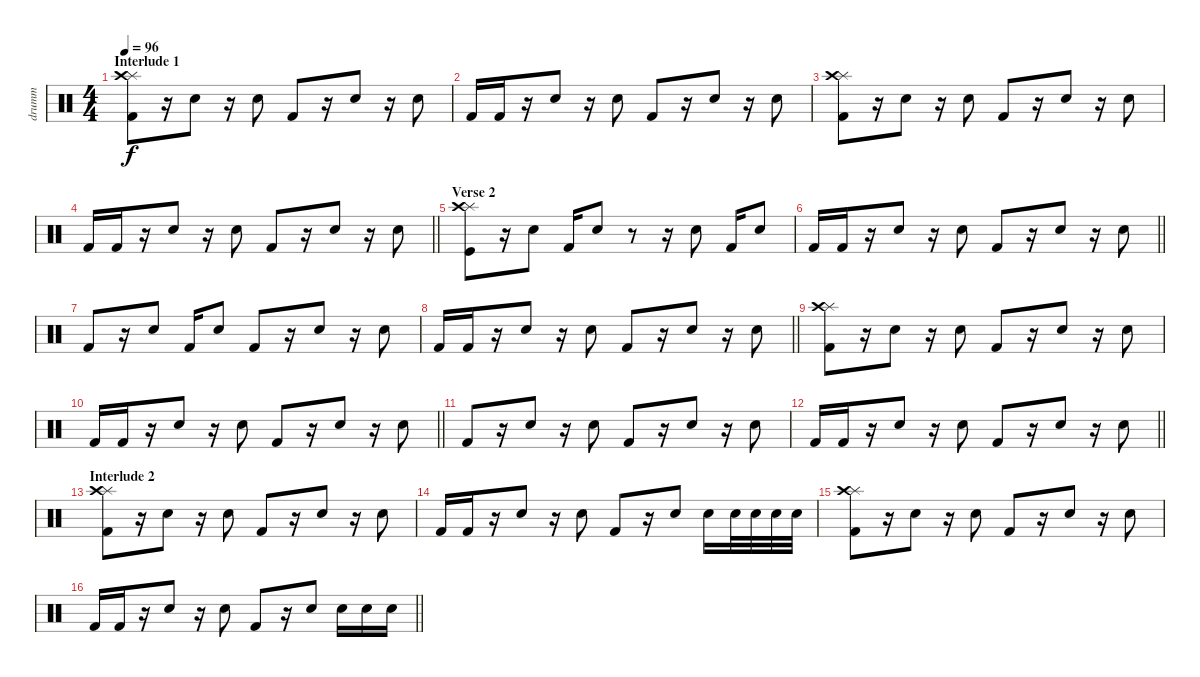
\track ("drumm" "drumm") {instrument percussion}
\staff {score}
\articulation defaults
\ts (4 4)
\section ("" "Interlude 1")
\tempo 96
\clef neutral
\ks c
("Splash (hit)" "Crash high (hit)" "Kick (hit) 2").8{dy f} r.16 "Electric Snare (hit)".8 r.16 "Electric Snare (hit)".8 "Kick (hit) 2".8 r.16 "Electric Snare (hit)".8 r.16 "Electric Snare (hit)".8 |
"Kick (hit) 2".16 "Kick (hit) 2".16 r.16 "Electric Snare (hit)".8 r.16 "Electric Snare (hit)".8 "Kick (hit) 2".8 r.16 "Electric Snare (hit)".8 r.16 "Electric Snare (hit)".8 |
("Splash (hit)" "Crash high (hit)" "Kick (hit) 2").8 r.16 "Electric Snare (hit)".8 r.16 "Electric Snare (hit)".8 "Kick (hit) 2".8 r.16 "Electric Snare (hit)".8 r.16 "Electric Snare (hit)".8 |
\barLineRight lightlight "Kick (hit) 2".16 "Kick (hit) 2".16
r.16 "Electric Snare (hit)".8 r.16 "Electric Snare (hit)".8 "Kick (hit) 2".8 r.16 "Electric Snare (hit)".8 r.16 "Electric Snare (hit)".8 |
\section ("" "Verse 2")
("Splash (hit)" "Crash high (hit)" "Kick (hit)").8 r.16 "Electric Snare (hit)".8 "Kick (hit) 2".16 "Electric Snare (hit)".8 r.8 r.16 "Electric Snare (hit)".8 "Kick (hit) 2".16 "Electric Snare (hit)".8 |
\barLineRight lightlight "Kick (hit) 2".16 "Kick (hit) 2".16
r.16 "Electric Snare (hit)".8 r.16 "Electric Snare (hit)".8 "Kick (hit) 2".8 r.16 "Electric Snare (hit)".8 r.16 "Electric Snare (hit)".8 |
"Kick (hit) 2".8 r.16 "Electric Snare (hit)".8 "Kick (hit) 2".16 "Electric Snare (hit)".8 "Kick (hit) 2".8 r.16 "Electric Snare (hit)".8 r.16 "Electric Snare (hit)".8 |
\barLineRight lightlight "Kick (hit) 2".16 "Kick (hit) 2".16
r.16 "Electric Snare (hit)".8 r.16 "Electric Snare (hit)".8 "Kick (hit) 2".8 r.16 "Electric Snare (hit)".8 r.16 "Electric Snare (hit)".8 |
("Splash (hit)" "Crash high (hit)" "Kick (hit) 2").8 r.16 "Electric Snare (hit)".8 r.16 "Electric Snare (hit)".8 "Kick (hit) 2".8 r.16 "Electric Snare (hit)".8 r.16 "Electric Snare (hit)".8 |
\barLineRight lightlight "Kick (hit) 2".16 "Kick (hit) 2".16
r.16 "Electric Snare (hit)".8 r.16 "Electric Snare (hit)".8 "Kick (hit) 2".8 r.16 "Electric Snare (hit)".8 r.16 "Electric Snare (hit)".8 |
"Kick (hit) 2".8 r.16 "Electric Snare (hit)".8 r.16 "Electric Snare (hit)".8 "Kick (hit) 2".8 r.16 "Electric Snare (hit)".8 r.16 "Electric Snare (hit)".8 |
\barLineRight lightlight "Kick (hit) 2".16 "Kick (hit) 2".16
r.16 "Electric Snare (hit)".8 r.16 "Electric Snare (hit)".8 "Kick (hit) 2".8 r.16 "Electric Snare (hit)".8 r.16 "Electric Snare (hit)".8 |
\section ("" "Interlude 2")
("Splash (hit)" "Crash high (hit)" "Kick (hit) 2").8 r.16 "Electric Snare (hit)".8 r.16 "Electric Snare (hit)".8 "Kick (hit) 2".8 r.16 "Electric Snare (hit)".8 r.16 "Electric Snare (hit)".8 |
"Kick (hit) 2".16 "Kick (hit) 2".16 r.16 "Electric Snare (hit)".8 r.16 "Electric Snare (hit)".8 "Kick (hit) 2".8 r.16 "Electric Snare (hit)".8 "Electric Snare (hit)".16 "Electric Snare (hit)".32 "Electric Snare (hit)".32 "Electric Snare (hit)".32 "Electric Snare (hit)".32 |
("Splash (hit)" "Crash high (hit)" "Kick (hit) 2").8 r.16 "Electric Snare (hit)".8 r.16 "Electric Snare (hit)".8 "Kick (hit) 2".8 r.16 "Electric Snare (hit)".8 r.16 "Electric Snare (hit)".8 |
\barLineRight lightlight "Kick (hit) 2".16 "Kick (hit) 2".16
r.16 "Electric Snare (hit)".8 r.16 "Electric Snare (hit)".8 "Kick (hit) 2".8 r.16 "Electric Snare (hit)".8 "Electric Snare (hit)".16 "Electric Snare (hit)".16 "Electric Snare (hit)".16
